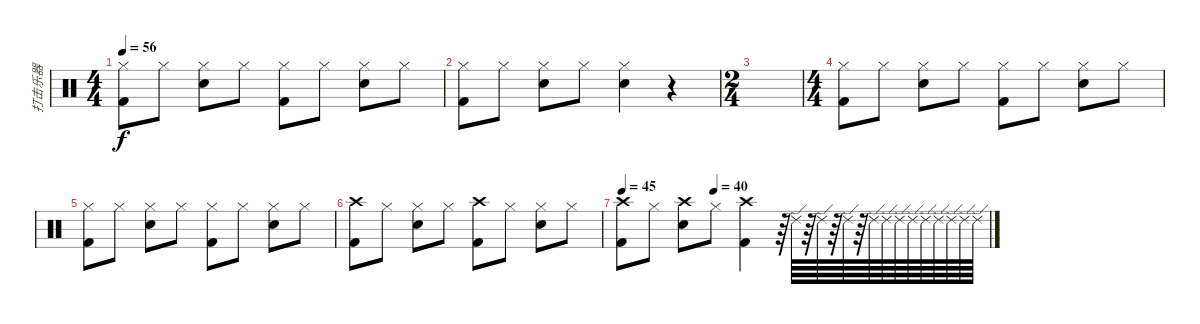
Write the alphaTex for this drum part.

\track ("打击乐器" "打击乐器") {instrument percussion}
\staff {score}
\articulation defaults
\ts (4 4)
\tempo 56
\clef neutral
\ks c
("Hi-Hat (closed)" "Kick (hit) 2").8{dy f} "Hi-Hat (closed)".8 ("Hi-Hat (closed)" "Snare (hit) 2").8 "Hi-Hat (closed)".8 ("Hi-Hat (closed)" "Kick (hit) 2").8 "Hi-Hat (closed)".8 ("Hi-Hat (closed)" "Snare (hit) 2").8 "Hi-Hat (closed)".8 |
("Hi-Hat (closed)" "Kick (hit) 2").8 "Hi-Hat (closed)".8 ("Hi-Hat (closed)" "Snare (hit) 2").8 "Hi-Hat (closed)".8 ("Hi-Hat (closed)" "Snare (hit) 2").4 r.4 |
\ts (2 4)
|
\ts (4 4)
("Hi-Hat (closed)" "Kick (hit) 2").8 "Hi-Hat (closed)".8 ("Hi-Hat (closed)" "Snare (hit) 2").8 "Hi-Hat (closed)".8 ("Hi-Hat (closed)" "Kick (hit) 2").8 "Hi-Hat (closed)".8 ("Hi-Hat (closed)" "Snare (hit) 2").8 "Hi-Hat (closed)".8 |
("Hi-Hat (closed)" "Kick (hit) 2").8 "Hi-Hat (closed)".8 ("Hi-Hat (closed)" "Snare (hit) 2").8 "Hi-Hat (closed)".8 ("Hi-Hat (closed)" "Kick (hit) 2").8 "Hi-Hat (closed)".8 ("Hi-Hat (closed)" "Snare (hit) 2").8 "Hi-Hat (closed)".8 |
("Crash high (hit)" "Kick (hit) 2").8 "Hi-Hat (closed)".8 ("Hi-Hat (closed)" "Snare (hit) 2").8 "Hi-Hat (closed)".8 ("Crash high (hit)" "Kick (hit) 2").8 "Hi-Hat (closed)".8 ("Hi-Hat (closed)" "Snare (hit) 2").8 "Hi-Hat (closed)".8 |
\tempo 45
\tempo (40 0.25)
("Crash high (hit)" "Kick (hit) 2").8 "Hi-Hat (closed)".8 ("Crash high (hit)" "Snare (hit) 2").8 "Hi-Hat (closed)".8 ("Crash high (hit)" "Kick (hit) 2").4 r.64 "Ride (edge) 2".64 r.64 "Ride (edge) 2".64 r.64 "Ride (edge) 2".64 r.64 "Ride (edge) 2".64 "Ride (edge) 2".64 "Ride (edge) 2".64 "Ride (edge) 2".64 "Ride (edge) 2".64 "Ride (edge) 2".64 "Ride (edge) 2".64 "Ride (edge) 2".64 "Ride (edge) 2".64
